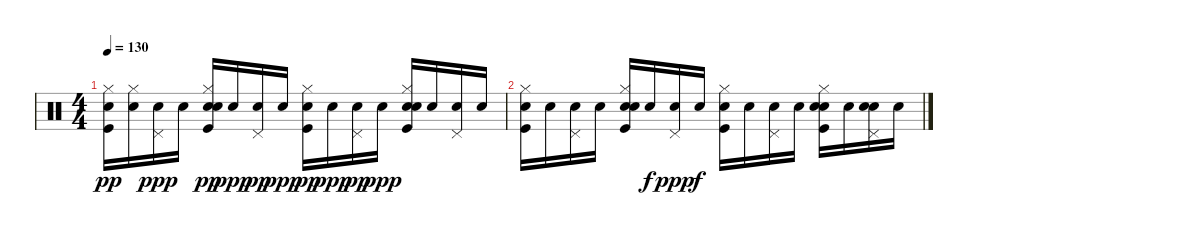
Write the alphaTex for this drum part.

\track "" {instrument percussion}
\staff {score}
\articulation defaults
\ts (4 4)
\tempo 130
\clef neutral
\ks c
("Electric Snare (hit)" "Kick (hit)" "Hi-Hat (closed)").16{dy pp} ("Electric Snare (hit)" "Hi-Hat (closed)").16 ("Pedal Hi-Hat (hit)" "Electric Snare (hit)").16{dy ppp} "Electric Snare (hit)".16 ("Hand Clap (hit)" "Electric Snare (hit)" "Kick (hit)" "Hi-Hat (closed)").16{dy pp} "Electric Snare (hit)".16{dy ppp} ("Electric Snare (hit)" "Pedal Hi-Hat (hit)").16{dy pp} "Electric Snare (hit)".16{dy ppp} ("Kick (hit)" "Electric Snare (hit)" "Hi-Hat (closed)").16{dy pp} "Electric Snare (hit)".16{dy ppp} ("Electric Snare (hit)" "Pedal Hi-Hat (hit)").16{dy pp} "Electric Snare (hit)".16{dy ppp} ("Hand Clap (hit)" "Kick (hit)" "Electric Snare (hit)" "Hi-Hat (closed)").16 "Electric Snare (hit)".16 ("Pedal Hi-Hat (hit)" "Electric Snare (hit)").16 "Electric Snare (hit)".16 |
("Kick (hit)" "Electric Snare (hit)" "Hi-Hat (closed)").16 "Electric Snare (hit)".16 ("Electric Snare (hit)" "Pedal Hi-Hat (hit)").16 "Electric Snare (hit)".16 ("Hand Clap (hit)" "Kick (hit)" "Electric Snare (hit)" "Hi-Hat (closed)").16 "Electric Snare (hit)".16{dy f} ("Electric Snare (hit)" "Pedal Hi-Hat (hit)").16{dy ppp} "Electric Snare (hit)".16{dy f} ("Kick (hit)" "Electric Snare (hit)" "Hi-Hat (closed)").16 "Electric Snare (hit)".16 ("Pedal Hi-Hat (hit)" "Electric Snare (hit)").16 "Electric Snare (hit)".16 ("Hand Clap (hit)" "Kick (hit)" "Electric Snare (hit)" "Hi-Hat (closed)").16 "Electric Snare (hit)".16 ("Hand Clap (hit)" "Pedal Hi-Hat (hit)" "Electric Snare (hit)").16 "Electric Snare (hit)".16
